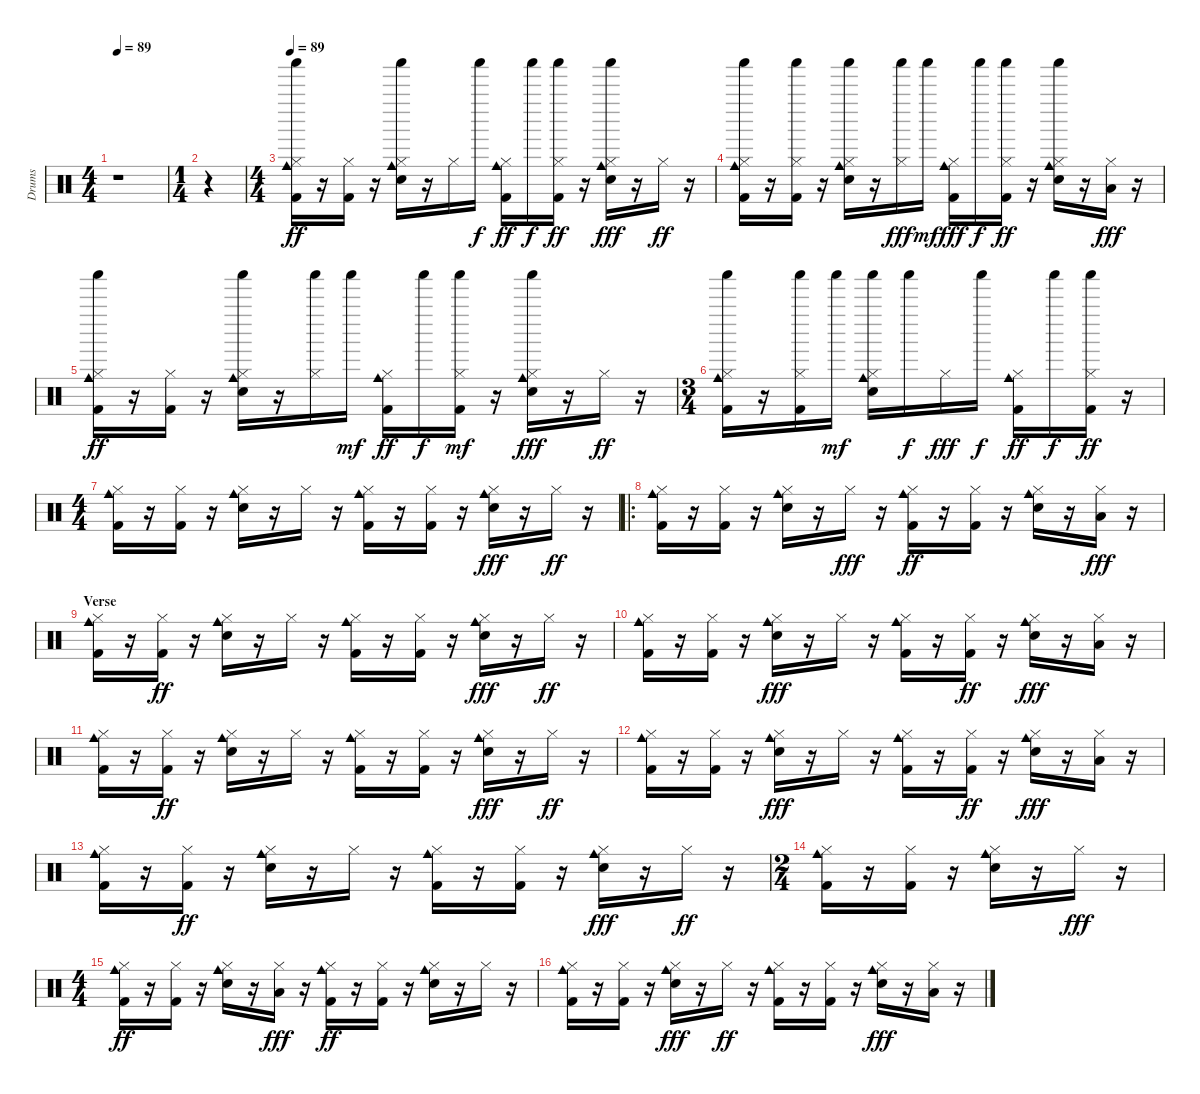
\track ("Drums" "Drums") {instrument percussion}
\staff {score}
\articulation defaults
\ts (4 4)
\tempo 89
\tempo 120
\tempo 89
\clef neutral
\ks c
r.1{dy ff} |
\ts (1 4)
r.4 |
\ts (4 4)
\tempo 89
("Cowbell medium (hit)" "Hi-Hat (closed)" "Kick (hit) 2" "Shaker (hit)").16 r.16 ("Hi-Hat (closed)" "Kick (hit) 2").16 r.16 ("Cowbell medium (hit)" "Hi-Hat (closed)" "Shaker (hit)" "Snare (hit) 2").16 r.16 "Hi-Hat (closed)".16 "Shaker (hit)".16{dy f} ("Kick (hit) 2" "Hi-Hat (closed)" "Cowbell medium (hit)").16{dy ff} "Shaker (hit)".16{dy f} ("Hi-Hat (closed)" "Shaker (hit)" "Kick (hit) 2").16{dy ff} r.16 ("Cowbell medium (hit)" "Shaker (hit)" "Hi-Hat (closed)" "Snare (hit) 2").16{dy fff} r.16 "Hi-Hat (closed)".16{dy ff} r.16 |
("Cowbell medium (hit)" "Kick (hit) 2" "Hi-Hat (closed)" "Shaker (hit)").16 r.16 ("Kick (hit) 2" "Shaker (hit)" "Hi-Hat (closed)").16 r.16 ("Cowbell medium (hit)" "Snare (hit) 2" "Shaker (hit)" "Hi-Hat (closed)").16 r.16 ("Shaker (hit)" "Hi-Hat (closed)").16{dy fff} "Shaker (hit)".16{dy mf} ("Cowbell medium (hit)" "Kick (hit) 2" "Hi-Hat (closed)").16{dy fff} "Shaker (hit)".16{dy f} ("Kick (hit) 2" "Shaker (hit)" "Hi-Hat (closed)").16{dy ff} r.16 ("Hi-Hat (closed)" "Snare (hit) 2" "Cowbell medium (hit)" "Shaker (hit)").16 r.16 ("Low Floor Tom (hit)" "Hi-Hat (closed)").16{dy fff} r.16 |
("Shaker (hit)" "Hi-Hat (closed)" "Kick (hit) 2" "Cowbell medium (hit)").16{dy ff} r.16 ("Kick (hit) 2" "Hi-Hat (closed)").16 r.16 ("Cowbell medium (hit)" "Snare (hit) 2" "Shaker (hit)" "Hi-Hat (closed)").16 r.16 ("Shaker (hit)" "Hi-Hat (closed)").16 "Shaker (hit)".16{dy mf} ("Cowbell medium (hit)" "Kick (hit) 2" "Hi-Hat (closed)").16{dy ff} "Shaker (hit)".16{dy f} ("Hi-Hat (closed)" "Kick (hit) 2" "Shaker (hit)").16{dy mf} r.16 ("Cowbell medium (hit)" "Hi-Hat (closed)" "Snare (hit) 2" "Shaker (hit)").16{dy fff} r.16 "Hi-Hat (closed)".16{dy ff} r.16 |
\ts (3 4)
("Shaker (hit)" "Hi-Hat (closed)" "Cowbell medium (hit)" "Kick (hit) 2").16 r.16 ("Shaker (hit)" "Hi-Hat (closed)" "Kick (hit) 2").16 "Shaker (hit)".16{dy mf} ("Hi-Hat (closed)" "Snare (hit) 2" "Shaker (hit)" "Cowbell medium (hit)").16 "Shaker (hit)".16{dy f} "Hi-Hat (closed)".16{dy fff} "Shaker (hit)".16{dy f} ("Hi-Hat (closed)" "Kick (hit) 2" "Cowbell medium (hit)").16{dy ff} "Shaker (hit)".16{dy f} ("Hi-Hat (closed)" "Shaker (hit)" "Kick (hit) 2").16{dy ff} r.16 |
\ts (4 4)
("Cowbell medium (hit)" "Hi-Hat (closed)" "Kick (hit) 2").16 r.16 ("Kick (hit) 2" "Hi-Hat (closed)").16 r.16 ("Cowbell medium (hit)" "Hi-Hat (closed)" "Snare (hit) 2").16 r.16 "Hi-Hat (closed)".16 r.16 ("Hi-Hat (closed)" "Kick (hit) 2" "Cowbell medium (hit)").16 r.16 ("Hi-Hat (closed)" "Kick (hit) 2").16 r.16 ("Hi-Hat (closed)" "Snare (hit) 2" "Cowbell medium (hit)").16{dy fff} r.16 "Hi-Hat (closed)".16{dy ff} r.16 |
\ro
("Kick (hit) 2" "Hi-Hat (closed)" "Cowbell medium (hit)").16 r.16 ("Hi-Hat (closed)" "Kick (hit) 2").16 r.16 ("Snare (hit) 2" "Hi-Hat (closed)" "Cowbell medium (hit)").16 r.16 "Hi-Hat (closed)".16{dy fff} r.16 ("Cowbell medium (hit)" "Hi-Hat (closed)" "Kick (hit) 2").16{dy ff} r.16 ("Hi-Hat (closed)" "Kick (hit) 2").16 r.16 ("Cowbell medium (hit)" "Hi-Hat (closed)" "Snare (hit) 2").16 r.16 ("Hi-Hat (closed)" "Low Floor Tom (hit)").16{dy fff} r.16 |
\section ("" "Verse")
("Cowbell medium (hit)" "Kick (hit) 2" "Hi-Hat (closed)").16 r.16 ("Kick (hit) 2" "Hi-Hat (closed)").16{dy ff} r.16 ("Snare (hit) 2" "Cowbell medium (hit)" "Hi-Hat (closed)").16 r.16 "Hi-Hat (closed)".16 r.16 ("Cowbell medium (hit)" "Hi-Hat (closed)" "Kick (hit) 2").16 r.16 ("Hi-Hat (closed)" "Kick (hit) 2").16 r.16 ("Hi-Hat (closed)" "Snare (hit) 2" "Cowbell medium (hit)").16{dy fff} r.16 "Hi-Hat (closed)".16{dy ff} r.16 |
("Cowbell medium (hit)" "Hi-Hat (closed)" "Kick (hit) 2").16 r.16 ("Kick (hit) 2" "Hi-Hat (closed)").16 r.16 ("Cowbell medium (hit)" "Hi-Hat (closed)" "Snare (hit) 2").16{dy fff} r.16 "Hi-Hat (closed)".16 r.16 ("Kick (hit) 2" "Cowbell medium (hit)" "Hi-Hat (closed)").16 r.16 ("Kick (hit) 2" "Hi-Hat (closed)").16{dy ff} r.16 ("Cowbell medium (hit)" "Snare (hit) 2" "Hi-Hat (closed)").16{dy fff} r.16 ("Low Floor Tom (hit)" "Hi-Hat (closed)").16 r.16 |
("Cowbell medium (hit)" "Kick (hit) 2" "Hi-Hat (closed)").16 r.16 ("Kick (hit) 2" "Hi-Hat (closed)").16{dy ff} r.16 ("Cowbell medium (hit)" "Snare (hit) 2" "Hi-Hat (closed)").16 r.16 "Hi-Hat (closed)".16 r.16 ("Cowbell medium (hit)" "Hi-Hat (closed)" "Kick (hit) 2").16 r.16 ("Hi-Hat (closed)" "Kick (hit) 2").16 r.16 ("Hi-Hat (closed)" "Snare (hit) 2" "Cowbell medium (hit)").16{dy fff} r.16 "Hi-Hat (closed)".16{dy ff} r.16 |
("Cowbell medium (hit)" "Hi-Hat (closed)" "Kick (hit) 2").16 r.16 ("Kick (hit) 2" "Hi-Hat (closed)").16 r.16 ("Cowbell medium (hit)" "Hi-Hat (closed)" "Snare (hit) 2").16{dy fff} r.16 "Hi-Hat (closed)".16 r.16 ("Kick (hit) 2" "Cowbell medium (hit)" "Hi-Hat (closed)").16 r.16 ("Kick (hit) 2" "Hi-Hat (closed)").16{dy ff} r.16 ("Cowbell medium (hit)" "Snare (hit) 2" "Hi-Hat (closed)").16{dy fff} r.16 ("Low Floor Tom (hit)" "Hi-Hat (closed)").16 r.16 |
("Cowbell medium (hit)" "Kick (hit) 2" "Hi-Hat (closed)").16 r.16 ("Hi-Hat (closed)" "Kick (hit) 2").16{dy ff} r.16 ("Snare (hit) 2" "Cowbell medium (hit)" "Hi-Hat (closed)").16 r.16 "Hi-Hat (closed)".16 r.16 ("Hi-Hat (closed)" "Kick (hit) 2" "Cowbell medium (hit)").16 r.16 ("Kick (hit) 2" "Hi-Hat (closed)").16 r.16 ("Hi-Hat (closed)" "Snare (hit) 2" "Cowbell medium (hit)").16{dy fff} r.16 "Hi-Hat (closed)".16{dy ff} r.16 |
\ts (2 4)
("Hi-Hat (closed)" "Cowbell medium (hit)" "Kick (hit) 2").16 r.16 ("Kick (hit) 2" "Hi-Hat (closed)").16 r.16 ("Snare (hit) 2" "Hi-Hat (closed)" "Cowbell medium (hit)").16 r.16 "Hi-Hat (closed)".16{dy fff} r.16 |
\ts (4 4)
("Cowbell medium (hit)" "Hi-Hat (closed)" "Kick (hit) 2").16{dy ff} r.16 ("Hi-Hat (closed)" "Kick (hit) 2").16 r.16 ("Cowbell medium (hit)" "Hi-Hat (closed)" "Snare (hit) 2").16 r.16 ("Hi-Hat (closed)" "Low Floor Tom (hit)").16{dy fff} r.16 ("Hi-Hat (closed)" "Kick (hit) 2" "Cowbell medium (hit)").16{dy ff} r.16 ("Hi-Hat (closed)" "Kick (hit) 2").16 r.16 ("Hi-Hat (closed)" "Cowbell medium (hit)" "Snare (hit) 2").16 r.16 "Hi-Hat (closed)".16 r.16 |
("Kick (hit) 2" "Cowbell medium (hit)" "Hi-Hat (closed)").16 r.16 ("Kick (hit) 2" "Hi-Hat (closed)").16 r.16 ("Hi-Hat (closed)" "Snare (hit) 2" "Cowbell medium (hit)").16{dy fff} r.16 "Hi-Hat (closed)".16{dy ff} r.16 ("Hi-Hat (closed)" "Kick (hit) 2" "Cowbell medium (hit)").16 r.16 ("Hi-Hat (closed)" "Kick (hit) 2").16 r.16 ("Hi-Hat (closed)" "Snare (hit) 2" "Cowbell medium (hit)").16{dy fff} r.16 ("Hi-Hat (closed)" "Low Floor Tom (hit)").16 r.16
